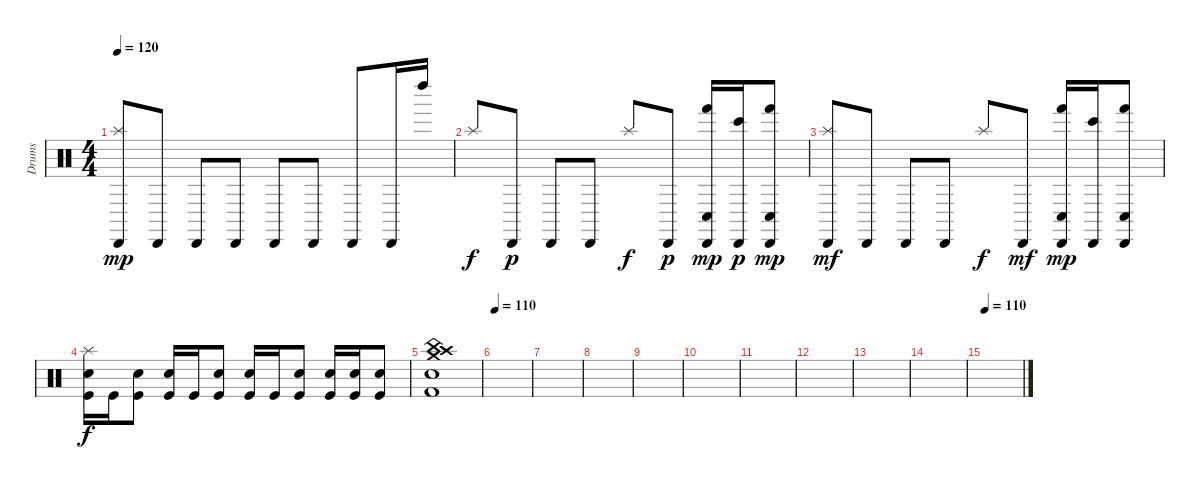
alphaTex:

\track ("Drums" "Drums") {instrument percussion}
\staff {score}
\articulation defaults
\ts (4 4)
\tempo 120
\clef neutral
\ks c
("Cabasa (hit)" "Splash (hit)").8{dy mp} "Cabasa (hit)".8 "Cabasa (hit)".8 "Cabasa (hit)".8 "Cabasa (hit)".8 "Cabasa (hit)".8 "Cabasa (hit)".8 "Cabasa (hit)".16 "Left Maraca (hit)".16 |
"Splash (hit)".8{dy f} "Cabasa (hit)".8{dy p} "Cabasa (hit)".8 "Cabasa (hit)".8 "Splash (hit)".8{dy f} "Cabasa (hit)".8{dy p} ("Conga low (hit)" "Cabasa (hit)" "Hand (hit)").16{dy mp} ("Bongo High (hit)" "Cabasa (hit)").16{dy p} ("Hand (hit)" "Cabasa (hit)" "Conga low (hit)").8{dy mp} |
("Cabasa (hit)" "Splash (hit)").8{dy mf} "Cabasa (hit)".8 "Cabasa (hit)".8 "Cabasa (hit)".8 "Splash (hit)".8{dy f} "Cabasa (hit)".8{dy mf} ("Conga low (hit)" "Cabasa (hit)" "Hand (hit)").16{dy mp} ("Bongo High (hit)" "Cabasa (hit)").16 ("Hand (hit)" "Cabasa (hit)" "Conga low (hit)").8 |
("Kick (hit)" "Splash (hit)" "Snare (hit) 2").16{dy f} "Kick (hit)".16 ("Kick (hit)" "Snare (hit) 2").8 ("Kick (hit)" "Snare (hit) 2").16 "Kick (hit)".16 ("Kick (hit)" "Snare (hit) 2").8 ("Kick (hit)" "Snare (hit) 2").16 "Kick (hit)".16 ("Kick (hit)" "Snare (hit) 2").8 ("Kick (hit)" "Snare (hit) 2").16 ("Kick (hit)" "Snare (hit) 2").16 ("Kick (hit)" "Snare (hit) 2").8 |
("Snare (hit) 2" "Crash high (hit)" "Crash medium (hit)" "China (hit)" "Kick (hit) 2").1 |
\tempo 110
|
|
|
|
|
|
|
|
|
\tempo 110
